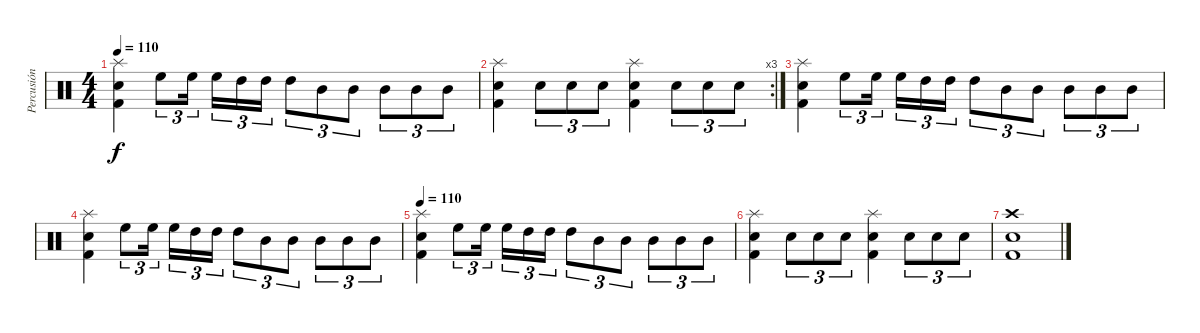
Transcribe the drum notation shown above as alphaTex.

\track ("Percusión" "Percusión") {instrument percussion}
\staff {score}
\articulation defaults
\ts (4 4)
\tempo 110
\clef neutral
\ks c
("Splash (hit)" "Snare (hit) 2" "Kick (hit) 2").4{dy f} "High Floor Tom (hit)".8{tu (3 2)} "High Floor Tom (hit)".16{tu (3 2) beam splitsecondary} "High Floor Tom (hit)".16{tu (3 2)} "High Tom (hit)".16{tu (3 2)} "High Tom (hit)".16{tu (3 2)} "High Tom (hit)".8{tu (3 2)} "Mid Tom (hit)".8{tu (3 2)} "Mid Tom (hit)".8{tu (3 2)} "Mid Tom (hit)".8{tu (3 2)} "Mid Tom (hit)".8{tu (3 2)} "Mid Tom (hit)".8{tu (3 2)} |
\rc 3
("Splash (hit)" "Snare (hit) 2" "Kick (hit) 2").4 "Snare (hit) 2".8{tu (3 2)} "Snare (hit) 2".8{tu (3 2)} "Snare (hit) 2".8{tu (3 2)} ("Splash (hit)" "Snare (hit) 2" "Kick (hit) 2").4 "Snare (hit) 2".8{tu (3 2)} "Snare (hit) 2".8{tu (3 2)} "Snare (hit) 2".8{tu (3 2)} |
("Splash (hit)" "Snare (hit) 2" "Kick (hit) 2").4 "High Floor Tom (hit)".8{tu (3 2)} "High Floor Tom (hit)".16{tu (3 2) beam splitsecondary} "High Floor Tom (hit)".16{tu (3 2)} "High Tom (hit)".16{tu (3 2)} "High Tom (hit)".16{tu (3 2)} "High Tom (hit)".8{tu (3 2)} "Mid Tom (hit)".8{tu (3 2)} "Mid Tom (hit)".8{tu (3 2)} "Mid Tom (hit)".8{tu (3 2)} "Mid Tom (hit)".8{tu (3 2)} "Mid Tom (hit)".8{tu (3 2)} |
("Splash (hit)" "Snare (hit) 2" "Kick (hit) 2").4 "High Floor Tom (hit)".8{tu (3 2)} "High Floor Tom (hit)".16{tu (3 2) beam splitsecondary} "High Floor Tom (hit)".16{tu (3 2)} "High Tom (hit)".16{tu (3 2)} "High Tom (hit)".16{tu (3 2)} "High Tom (hit)".8{tu (3 2)} "Mid Tom (hit)".8{tu (3 2)} "Mid Tom (hit)".8{tu (3 2)} "Mid Tom (hit)".8{tu (3 2)} "Mid Tom (hit)".8{tu (3 2)} "Mid Tom (hit)".8{tu (3 2)} |
\tempo 110
("Splash (hit)" "Snare (hit) 2" "Kick (hit) 2").4 "High Floor Tom (hit)".8{tu (3 2)} "High Floor Tom (hit)".16{tu (3 2) beam splitsecondary} "High Floor Tom (hit)".16{tu (3 2)} "High Tom (hit)".16{tu (3 2)} "High Tom (hit)".16{tu (3 2)} "High Tom (hit)".8{tu (3 2)} "Mid Tom (hit)".8{tu (3 2)} "Mid Tom (hit)".8{tu (3 2)} "Mid Tom (hit)".8{tu (3 2)} "Mid Tom (hit)".8{tu (3 2)} "Mid Tom (hit)".8{tu (3 2)} |
("Splash (hit)" "Snare (hit) 2" "Kick (hit) 2").4 "Snare (hit) 2".8{tu (3 2)} "Snare (hit) 2".8{tu (3 2)} "Snare (hit) 2".8{tu (3 2)} ("Splash (hit)" "Snare (hit) 2" "Kick (hit) 2").4 "Snare (hit) 2".8{tu (3 2)} "Snare (hit) 2".8{tu (3 2)} "Snare (hit) 2".8{tu (3 2)} |
("Crash high (hit)" "Snare (hit) 2" "Kick (hit) 2").1
